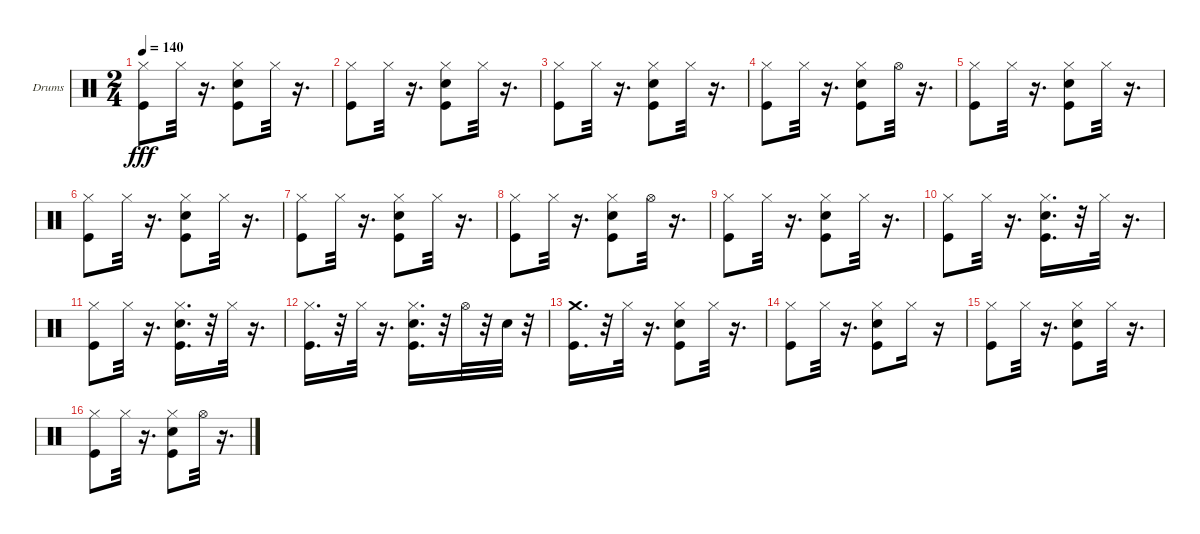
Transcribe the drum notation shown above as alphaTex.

\bracketExtendMode groupsimilarinstruments
\firstSystemTrackNameOrientation horizontal
\otherSystemsTrackNameOrientation horizontal
\track ("Ударные" "Drums") {instrument percussion}
\staff {score}
\articulation defaults
\ts (2 4)
\tempo 140
\clef neutral
\ks c
("Kick (hit)" "Hi-Hat (closed)").8{dy fff} "Hi-Hat (closed)".32 r.16{d} ("Kick (hit)" "Hi-Hat (closed)" "Snare (hit) 2").8 "Hi-Hat (closed)".32 r.16{d} |
("Kick (hit)" "Hi-Hat (closed)").8 "Hi-Hat (closed)".32 r.16{d} ("Snare (hit) 2" "Kick (hit)" "Hi-Hat (closed)").8 "Hi-Hat (closed)".32 r.16{d} |
("Kick (hit)" "Hi-Hat (closed)").8 "Hi-Hat (closed)".32 r.16{d} ("Snare (hit) 2" "Kick (hit)" "Hi-Hat (closed)").8 "Hi-Hat (closed)".32 r.16{d} |
("Kick (hit)" "Hi-Hat (closed)").8 "Hi-Hat (closed)".32 r.16{d} ("Kick (hit)" "Hi-Hat (closed)" "Snare (hit) 2").8 "Hi-Hat (open)".32 r.16{d} |
("Kick (hit)" "Hi-Hat (closed)").8 "Hi-Hat (closed)".32 r.16{d} ("Snare (hit) 2" "Kick (hit)" "Hi-Hat (closed)").8 "Hi-Hat (closed)".32 r.16{d} |
("Kick (hit)" "Hi-Hat (closed)").8 "Hi-Hat (closed)".32 r.16{d} ("Snare (hit) 2" "Kick (hit)" "Hi-Hat (closed)").8 "Hi-Hat (closed)".32 r.16{d} |
("Kick (hit)" "Hi-Hat (closed)").8 "Hi-Hat (closed)".32 r.16{d} ("Kick (hit)" "Hi-Hat (closed)" "Snare (hit) 2").8 "Hi-Hat (closed)".32 r.16{d} |
("Kick (hit)" "Hi-Hat (closed)").8 "Hi-Hat (closed)".32 r.16{d} ("Snare (hit) 2" "Kick (hit)" "Hi-Hat (closed)").8 "Hi-Hat (open)".32 r.16{d} |
("Kick (hit)" "Hi-Hat (closed)").8 "Hi-Hat (closed)".32 r.16{d} ("Snare (hit) 2" "Kick (hit)" "Hi-Hat (closed)").8 "Hi-Hat (closed)".32 r.16{d} |
("Kick (hit)" "Hi-Hat (closed)").8 "Hi-Hat (closed)".32 r.16{d} ("Snare (hit) 2" "Kick (hit)" "Hi-Hat (closed)").16{d} r.32 "Hi-Hat (closed)".32 r.16{d} |
("Kick (hit)" "Hi-Hat (closed)").8 "Hi-Hat (closed)".32 r.16{d} ("Hi-Hat (closed)" "Snare (hit) 2" "Kick (hit)").16{d} r.32 "Hi-Hat (closed)".32 r.16{d} |
("Kick (hit)" "Hi-Hat (closed)").16{d} r.32 "Hi-Hat (closed)".32 r.16{d} ("Snare (hit) 2" "Kick (hit)" "Hi-Hat (closed)").16{d} r.32 "Hi-Hat (open)".32 r.32 "Snare (hit) 2".32 r.32 |
("Crash medium (hit)" "Kick (hit)").16{d} r.32 "Hi-Hat (closed)".32 r.16{d} ("Kick (hit)" "Snare (hit) 2" "Hi-Hat (closed)").8 "Hi-Hat (closed)".32 r.16{d} |
("Kick (hit)" "Hi-Hat (closed)").8 "Hi-Hat (closed)".32 r.16{d} ("Kick (hit)" "Hi-Hat (closed)" "Snare (hit) 2").8 "Hi-Hat (closed)".16 r.16 |
("Kick (hit)" "Hi-Hat (closed)").8 "Hi-Hat (closed)".32 r.16{d} ("Hi-Hat (closed)" "Snare (hit) 2" "Kick (hit)").8 "Hi-Hat (closed)".32 r.16{d} |
("Kick (hit)" "Hi-Hat (closed)").8 "Hi-Hat (closed)".32 r.16{d} ("Snare (hit) 2" "Hi-Hat (closed)" "Kick (hit)").8 "Hi-Hat (open)".32 r.16{d}
